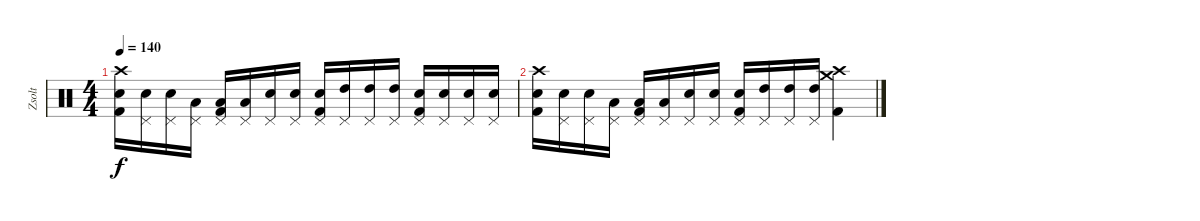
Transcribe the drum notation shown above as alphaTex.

\track ("Zsolt" "Zsolt") {instrument percussion}
\staff {score}
\articulation defaults
\ts (4 4)
\tempo 140
\clef neutral
\ks c
("Crash high (hit)" "Snare (hit) 2" "Kick (hit) 2").16{dy f} ("Pedal Hi-Hat (hit)" "Snare (hit) 2").16 ("Pedal Hi-Hat (hit)" "Snare (hit) 2").16 ("Pedal Hi-Hat (hit)" "Low Tom (hit)").16 ("Pedal Hi-Hat (hit)" "Low Tom (hit)" "Kick (hit) 2").16 ("Pedal Hi-Hat (hit)" "Low Tom (hit)").16 ("Pedal Hi-Hat (hit)" "Snare (hit) 2").16 ("Pedal Hi-Hat (hit)" "Snare (hit) 2").16 ("Pedal Hi-Hat (hit)" "Snare (hit) 2" "Kick (hit) 2").16 ("Pedal Hi-Hat (hit)" "High Tom (hit)").16 ("Pedal Hi-Hat (hit)" "High Tom (hit)").16 ("Pedal Hi-Hat (hit)" "High Tom (hit)").16 ("Pedal Hi-Hat (hit)" "Snare (hit) 2" "Kick (hit) 2").16 ("Pedal Hi-Hat (hit)" "Snare (hit) 2").16 ("Pedal Hi-Hat (hit)" "Snare (hit) 2").16 ("Pedal Hi-Hat (hit)" "Snare (hit) 2").16 |
("Crash high (hit)" "Snare (hit) 2" "Kick (hit) 2").16 ("Pedal Hi-Hat (hit)" "Snare (hit) 2").16 ("Pedal Hi-Hat (hit)" "Snare (hit) 2").16 ("Pedal Hi-Hat (hit)" "Low Tom (hit)").16 ("Pedal Hi-Hat (hit)" "Low Tom (hit)" "Kick (hit) 2").16 ("Pedal Hi-Hat (hit)" "Low Tom (hit)").16 ("Pedal Hi-Hat (hit)" "Snare (hit) 2").16 ("Pedal Hi-Hat (hit)" "Snare (hit) 2").16 ("Pedal Hi-Hat (hit)" "Snare (hit) 2" "Kick (hit) 2").16 ("Pedal Hi-Hat (hit)" "High Tom (hit)").16 ("Pedal Hi-Hat (hit)" "High Tom (hit)").16 ("Pedal Hi-Hat (hit)" "High Tom (hit)").16 ("Crash medium (hit)" "Crash high (hit)" "Kick (hit) 2").4
